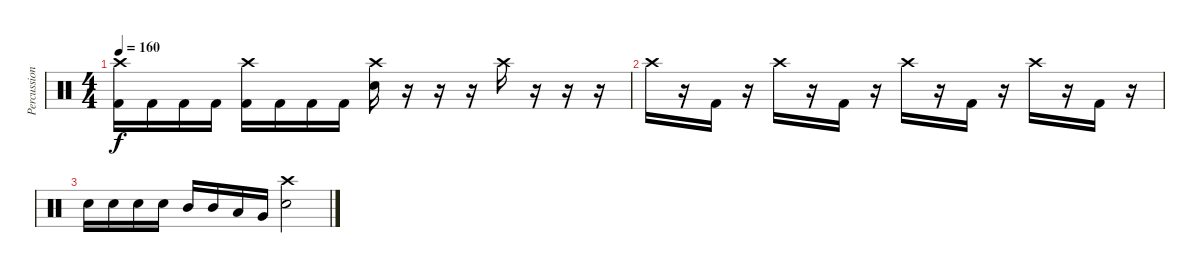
\track ("Percussion" "Percussion") {instrument percussion}
\staff {score}
\articulation defaults
\ts (4 4)
\tempo 160
\clef neutral
\ks c
("Crash high (hit)" "Kick (hit) 2").16{dy f} "Kick (hit) 2".16 "Kick (hit) 2".16 "Kick (hit) 2".16 ("Crash high (hit)" "Kick (hit) 2").16 "Kick (hit) 2".16 "Kick (hit) 2".16 "Kick (hit) 2".16 ("Crash high (hit)" "Snare (hit) 2").16 r.16 r.16 r.16 "Crash high (hit)".16 r.16 r.16 r.16 |
"Crash high (hit)".16 r.16 "Kick (hit) 2".16 r.16 "Crash high (hit)".16 r.16 "Kick (hit) 2".16 r.16 "Crash high (hit)".16 r.16 "Kick (hit) 2".16 r.16 "Crash high (hit)".16 r.16 "Kick (hit) 2".16 r.16 |
"Snare (hit) 2".16 "Snare (hit) 2".16 "Snare (hit) 2".16 "Snare (hit) 2".16 "Mid Tom (hit)".16 "Mid Tom (hit)".16 "Low Tom (hit)".16 "Very Low Tom (hit)".16 ("Crash high (hit)" "Snare (hit) 2").2
